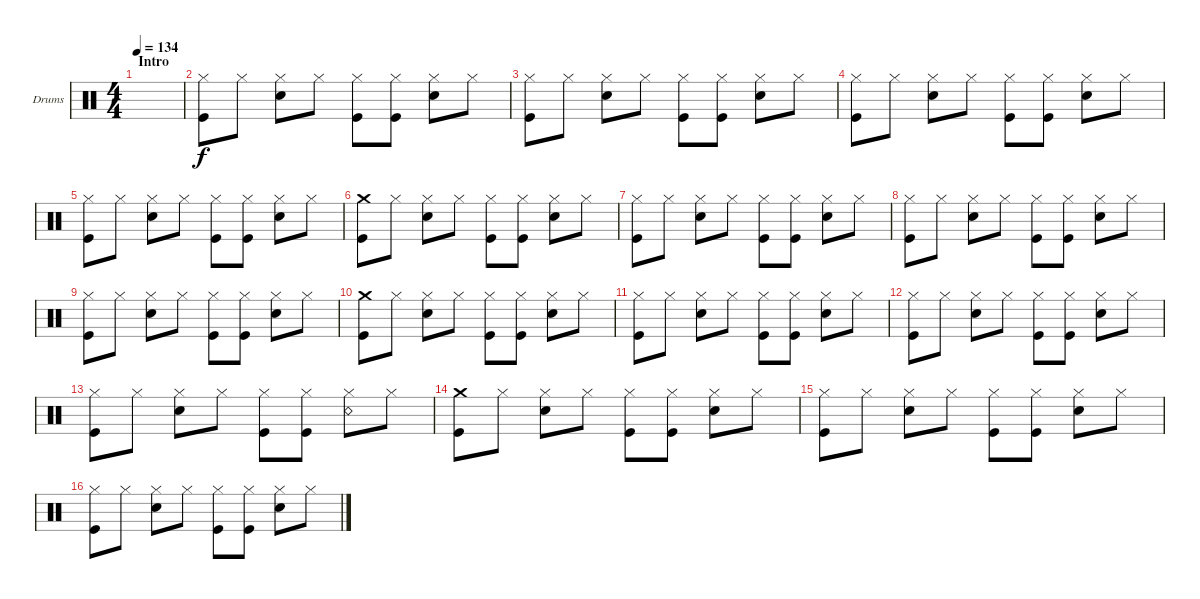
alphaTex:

\defaultSystemsLayout 4
\bracketExtendMode groupsimilarinstruments
\firstSystemTrackNameOrientation horizontal
\otherSystemsTrackNameOrientation horizontal
\track ("Drums" "Drums") {instrument percussion}
\staff {score}
\articulation defaults
\ts (4 4)
\section ("" "Intro")
\tempo 134
\clef neutral
\scale
0.474178
\ks c
|
\scale
0.262911 ("Hi-Hat (closed)" "Kick (hit)").8 "Hi-Hat (closed)".8 ("Hi-Hat (closed)" "Snare (hit) 2").8 "Hi-Hat (closed)".8 ("Hi-Hat (closed)" "Kick (hit)").8 ("Hi-Hat (closed)" "Kick (hit)").8 ("Hi-Hat (closed)" "Snare (hit) 2").8 "Hi-Hat (closed)".8 |
\scale
0.262911 ("Hi-Hat (closed)" "Kick (hit)").8 "Hi-Hat (closed)".8 ("Hi-Hat (closed)" "Snare (hit) 2").8 "Hi-Hat (closed)".8 ("Hi-Hat (closed)" "Kick (hit)").8 ("Hi-Hat (closed)" "Kick (hit)").8 ("Hi-Hat (closed)" "Snare (hit) 2").8 "Hi-Hat (closed)".8 |
\scale
0.333333 ("Hi-Hat (closed)" "Kick (hit)").8 "Hi-Hat (closed)".8 ("Hi-Hat (closed)" "Snare (hit) 2").8 "Hi-Hat (closed)".8 ("Hi-Hat (closed)" "Kick (hit)").8 ("Hi-Hat (closed)" "Kick (hit)").8 ("Hi-Hat (closed)" "Snare (hit) 2").8 "Hi-Hat (closed)".8 |
\scale
0.333333 ("Kick (hit)" "Hi-Hat (closed)").8 "Hi-Hat (closed)".8 ("Hi-Hat (closed)" "Snare (hit) 2").8 "Hi-Hat (closed)".8 ("Hi-Hat (closed)" "Kick (hit)").8 ("Hi-Hat (closed)" "Kick (hit)").8 ("Hi-Hat (closed)" "Snare (hit) 2").8 "Hi-Hat (closed)".8 |
\scale
0.333333 ("Kick (hit)" "Crash medium (hit)").8 "Hi-Hat (closed)".8 ("Hi-Hat (closed)" "Snare (hit) 2").8 "Hi-Hat (closed)".8 ("Hi-Hat (closed)" "Kick (hit)").8 ("Hi-Hat (closed)" "Kick (hit)").8 ("Hi-Hat (closed)" "Snare (hit) 2").8 "Hi-Hat (closed)".8 |
\scale
0.333333 ("Hi-Hat (closed)" "Kick (hit)").8 "Hi-Hat (closed)".8 ("Hi-Hat (closed)" "Snare (hit) 2").8 "Hi-Hat (closed)".8 ("Hi-Hat (closed)" "Kick (hit)").8 ("Hi-Hat (closed)" "Kick (hit)").8 ("Hi-Hat (closed)" "Snare (hit) 2").8 "Hi-Hat (closed)".8 |
\scale
0.333333 ("Hi-Hat (closed)" "Kick (hit)").8 "Hi-Hat (closed)".8 ("Hi-Hat (closed)" "Snare (hit) 2").8 "Hi-Hat (closed)".8 ("Hi-Hat (closed)" "Kick (hit)").8 ("Hi-Hat (closed)" "Kick (hit)").8 ("Hi-Hat (closed)" "Snare (hit) 2").8 "Hi-Hat (closed)".8 |
\scale
0.333333 ("Kick (hit)" "Hi-Hat (closed)").8 "Hi-Hat (closed)".8 ("Hi-Hat (closed)" "Snare (hit) 2").8 "Hi-Hat (closed)".8 ("Hi-Hat (closed)" "Kick (hit)").8 ("Hi-Hat (closed)" "Kick (hit)").8 ("Hi-Hat (closed)" "Snare (hit) 2").8 "Hi-Hat (closed)".8 |
\scale
0.333333 ("Kick (hit)" "Crash medium (hit)").8 "Hi-Hat (closed)".8 ("Hi-Hat (closed)" "Snare (hit) 2").8 "Hi-Hat (closed)".8 ("Hi-Hat (closed)" "Kick (hit)").8 ("Hi-Hat (closed)" "Kick (hit)").8 ("Hi-Hat (closed)" "Snare (hit) 2").8 "Hi-Hat (closed)".8 |
\scale
0.333333 ("Hi-Hat (closed)" "Kick (hit)").8 "Hi-Hat (closed)".8 ("Hi-Hat (closed)" "Snare (hit) 2").8 "Hi-Hat (closed)".8 ("Hi-Hat (closed)" "Kick (hit)").8 ("Hi-Hat (closed)" "Kick (hit)").8 ("Hi-Hat (closed)" "Snare (hit) 2").8 "Hi-Hat (closed)".8 |
\scale
0.333333 ("Hi-Hat (closed)" "Kick (hit)").8 "Hi-Hat (closed)".8 ("Hi-Hat (closed)" "Snare (hit) 2").8 "Hi-Hat (closed)".8 ("Hi-Hat (closed)" "Kick (hit)").8 ("Hi-Hat (closed)" "Kick (hit)").8 ("Hi-Hat (closed)" "Snare (hit) 2").8 "Hi-Hat (closed)".8 |
\scale
0.333333 ("Hi-Hat (closed)" "Kick (hit)").8 "Hi-Hat (closed)".8 ("Hi-Hat (closed)" "Snare (hit) 2").8 "Hi-Hat (closed)".8 ("Hi-Hat (closed)" "Kick (hit)").8 ("Hi-Hat (closed)" "Kick (hit)").8 ("Hi-Hat (closed)" "Snare (rim shot)").8 "Hi-Hat (closed)".8 |
\scale
0.333333 ("Kick (hit)" "Crash medium (hit)").8 "Hi-Hat (closed)".8 ("Hi-Hat (closed)" "Snare (hit) 2").8 "Hi-Hat (closed)".8 ("Hi-Hat (closed)" "Kick (hit)").8 ("Hi-Hat (closed)" "Kick (hit)").8 ("Hi-Hat (closed)" "Snare (hit) 2").8 "Hi-Hat (closed)".8 |
\scale
0.333333 ("Hi-Hat (closed)" "Kick (hit)").8 "Hi-Hat (closed)".8 ("Hi-Hat (closed)" "Snare (hit) 2").8 "Hi-Hat (closed)".8 ("Hi-Hat (closed)" "Kick (hit)").8 ("Hi-Hat (closed)" "Kick (hit)").8 ("Hi-Hat (closed)" "Snare (hit) 2").8 "Hi-Hat (closed)".8 |
("Hi-Hat (closed)" "Kick (hit)").8 "Hi-Hat (closed)".8 ("Hi-Hat (closed)" "Snare (hit) 2").8 "Hi-Hat (closed)".8 ("Hi-Hat (closed)" "Kick (hit)").8 ("Hi-Hat (closed)" "Kick (hit)").8 ("Hi-Hat (closed)" "Snare (hit) 2").8 "Hi-Hat (closed)".8
